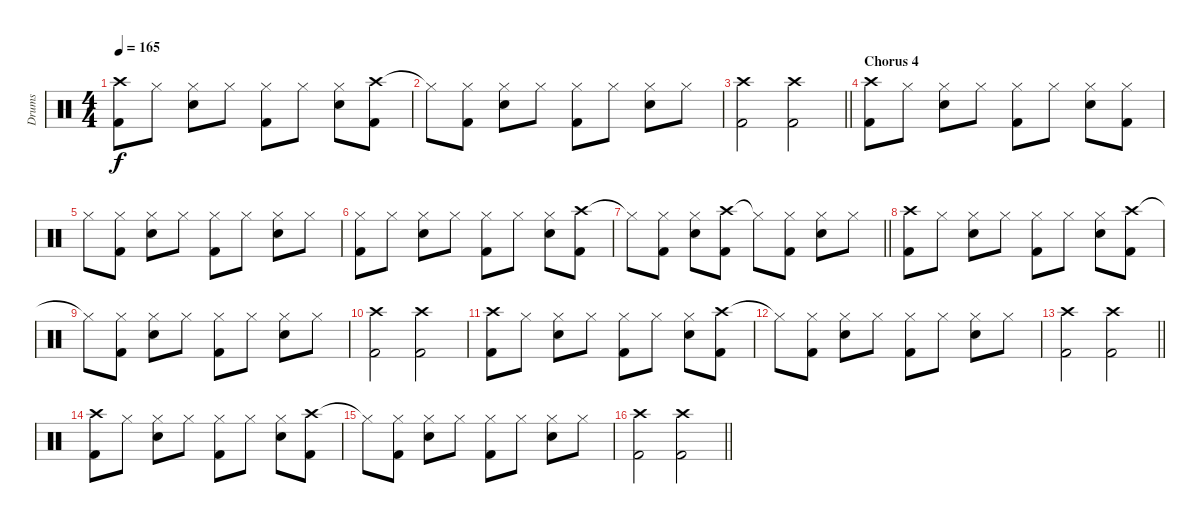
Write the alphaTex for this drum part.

\track ("Drums" "Drums") {instrument percussion}
\staff {score}
\articulation defaults
\ts (4 4)
\tempo 165
\clef neutral
\ks c
("Crash high (hit)" "Kick (hit) 2").8{dy f} "Hi-Hat (closed)".8 ("Hi-Hat (closed)" "Snare (hit) 2").8 "Hi-Hat (closed)".8 ("Hi-Hat (closed)" "Kick (hit) 2").8 "Hi-Hat (closed)".8 ("Hi-Hat (closed)" "Snare (hit) 2").8 ("Crash high (hit)" "Kick (hit) 2").8 |
"Hi-Hat (closed)"{t}.8 ("Hi-Hat (closed)" "Kick (hit) 2").8 ("Hi-Hat (closed)" "Snare (hit) 2").8 "Hi-Hat (closed)".8 ("Hi-Hat (closed)" "Kick (hit) 2").8 "Hi-Hat (closed)".8 ("Hi-Hat (closed)" "Snare (hit) 2").8 "Hi-Hat (closed)".8 |
\barLineRight lightlight
("Crash high (hit)" "Kick (hit) 2").2 ("Crash high (hit)" "Kick (hit) 2").2 |
\section ("" "Chorus 4")
("Crash high (hit)" "Kick (hit) 2").8 "Hi-Hat (closed)".8 ("Hi-Hat (closed)" "Snare (hit) 2").8 "Hi-Hat (closed)".8 ("Hi-Hat (closed)" "Kick (hit) 2").8 "Hi-Hat (closed)".8 ("Hi-Hat (closed)" "Snare (hit) 2").8 ("Hi-Hat (closed)" "Kick (hit) 2").8 |
"Hi-Hat (closed)".8 ("Hi-Hat (closed)" "Kick (hit) 2").8 ("Hi-Hat (closed)" "Snare (hit) 2").8 "Hi-Hat (closed)".8 ("Hi-Hat (closed)" "Kick (hit) 2").8 "Hi-Hat (closed)".8 ("Hi-Hat (closed)" "Snare (hit) 2").8 "Hi-Hat (closed)".8 |
("Hi-Hat (closed)" "Kick (hit) 2").8 "Hi-Hat (closed)".8 ("Hi-Hat (closed)" "Snare (hit) 2").8 "Hi-Hat (closed)".8 ("Hi-Hat (closed)" "Kick (hit) 2").8 "Hi-Hat (closed)".8 ("Hi-Hat (closed)" "Snare (hit) 2").8 ("Crash high (hit)" "Kick (hit) 2").8 |
\barLineRight lightlight "Hi-Hat (closed)"{t}.8
("Hi-Hat (closed)" "Kick (hit) 2").8 ("Hi-Hat (closed)" "Snare (hit) 2").8 ("Crash high (hit)" "Kick (hit) 2").8 "Hi-Hat (closed)"{t}.8 ("Hi-Hat (closed)" "Kick (hit) 2").8 ("Hi-Hat (closed)" "Snare (hit) 2").8 "Hi-Hat (closed)".8 |
("Crash high (hit)" "Kick (hit) 2").8 "Hi-Hat (closed)".8 ("Hi-Hat (closed)" "Snare (hit) 2").8 "Hi-Hat (closed)".8 ("Hi-Hat (closed)" "Kick (hit) 2").8 "Hi-Hat (closed)".8 ("Hi-Hat (closed)" "Snare (hit) 2").8 ("Crash high (hit)" "Kick (hit) 2").8 |
"Hi-Hat (closed)"{t}.8 ("Hi-Hat (closed)" "Kick (hit) 2").8 ("Hi-Hat (closed)" "Snare (hit) 2").8 "Hi-Hat (closed)".8 ("Hi-Hat (closed)" "Kick (hit) 2").8 "Hi-Hat (closed)".8 ("Hi-Hat (closed)" "Snare (hit) 2").8 "Hi-Hat (closed)".8 |
("Crash high (hit)" "Kick (hit) 2").2 ("Crash high (hit)" "Kick (hit) 2").2 |
("Crash high (hit)" "Kick (hit) 2").8 "Hi-Hat (closed)".8 ("Hi-Hat (closed)" "Snare (hit) 2").8 "Hi-Hat (closed)".8 ("Hi-Hat (closed)" "Kick (hit) 2").8 "Hi-Hat (closed)".8 ("Hi-Hat (closed)" "Snare (hit) 2").8 ("Crash high (hit)" "Kick (hit) 2").8 |
"Hi-Hat (closed)"{t}.8 ("Hi-Hat (closed)" "Kick (hit) 2").8 ("Hi-Hat (closed)" "Snare (hit) 2").8 "Hi-Hat (closed)".8 ("Hi-Hat (closed)" "Kick (hit) 2").8 "Hi-Hat (closed)".8 ("Hi-Hat (closed)" "Snare (hit) 2").8 "Hi-Hat (closed)".8 |
\barLineRight lightlight
("Crash high (hit)" "Kick (hit) 2").2 ("Crash high (hit)" "Kick (hit) 2").2 |
("Crash high (hit)" "Kick (hit) 2").8 "Hi-Hat (closed)".8 ("Hi-Hat (closed)" "Snare (hit) 2").8 "Hi-Hat (closed)".8 ("Hi-Hat (closed)" "Kick (hit) 2").8 "Hi-Hat (closed)".8 ("Hi-Hat (closed)" "Snare (hit) 2").8 ("Crash high (hit)" "Kick (hit) 2").8 |
"Hi-Hat (closed)"{t}.8 ("Hi-Hat (closed)" "Kick (hit) 2").8 ("Hi-Hat (closed)" "Snare (hit) 2").8 "Hi-Hat (closed)".8 ("Hi-Hat (closed)" "Kick (hit) 2").8 "Hi-Hat (closed)".8 ("Hi-Hat (closed)" "Snare (hit) 2").8 "Hi-Hat (closed)".8 |
\barLineRight lightlight
("Crash high (hit)" "Kick (hit) 2").2 ("Crash high (hit)" "Kick (hit) 2").2
